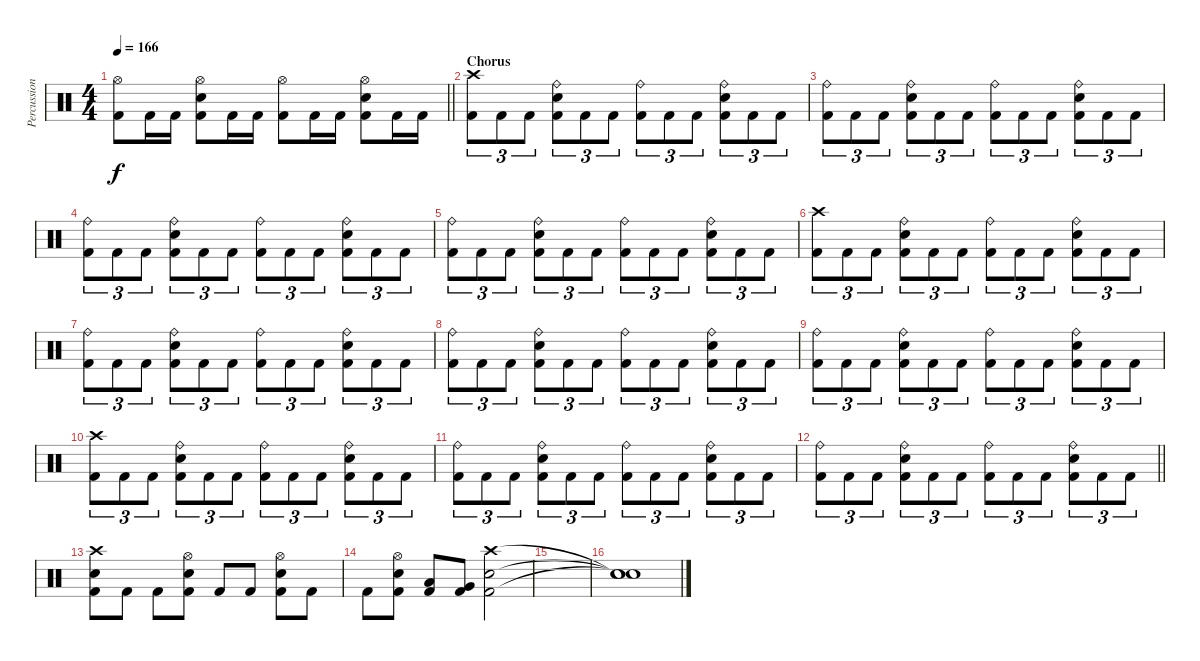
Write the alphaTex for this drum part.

\track ("Percussion" "Percussion") {instrument percussion}
\staff {score}
\articulation defaults
\ts (4 4)
\tempo 166
\clef neutral
\barLineRight lightlight
\ks c
("Hi-Hat (open)" "Kick (hit) 2").8{dy f} "Kick (hit) 2".16 "Kick (hit) 2".16 ("Hi-Hat (open)" "Snare (hit) 2" "Kick (hit) 2").8 "Kick (hit) 2".16 "Kick (hit) 2".16 ("Hi-Hat (open)" "Kick (hit) 2").8 "Kick (hit) 2".16 "Kick (hit) 2".16 ("Hi-Hat (open)" "Snare (hit) 2" "Kick (hit) 2").8 "Kick (hit) 2".16 "Kick (hit) 2".16 |
\section ("" "Chorus")
("Crash high (hit)" "Kick (hit) 2").8{tu (3 2)} "Kick (hit) 2".8{tu (3 2)} "Kick (hit) 2".8{tu (3 2)} ("Ride (bell)" "Snare (hit) 2" "Kick (hit) 2").8{tu (3 2)} "Kick (hit) 2".8{tu (3 2)} "Kick (hit) 2".8{tu (3 2)} ("Ride (bell)" "Kick (hit) 2").8{tu (3 2)} "Kick (hit) 2".8{tu (3 2)} "Kick (hit) 2".8{tu (3 2)} ("Ride (bell)" "Snare (hit) 2" "Kick (hit) 2").8{tu (3 2)} "Kick (hit) 2".8{tu (3 2)} "Kick (hit) 2".8{tu (3 2)} |
("Ride (bell)" "Kick (hit) 2").8{tu (3 2)} "Kick (hit) 2".8{tu (3 2)} "Kick (hit) 2".8{tu (3 2)} ("Ride (bell)" "Snare (hit) 2" "Kick (hit) 2").8{tu (3 2)} "Kick (hit) 2".8{tu (3 2)} "Kick (hit) 2".8{tu (3 2)} ("Ride (bell)" "Kick (hit) 2").8{tu (3 2)} "Kick (hit) 2".8{tu (3 2)} "Kick (hit) 2".8{tu (3 2)} ("Ride (bell)" "Snare (hit) 2" "Kick (hit) 2").8{tu (3 2)} "Kick (hit) 2".8{tu (3 2)} "Kick (hit) 2".8{tu (3 2)} |
("Ride (bell)" "Kick (hit) 2").8{tu (3 2)} "Kick (hit) 2".8{tu (3 2)} "Kick (hit) 2".8{tu (3 2)} ("Ride (bell)" "Snare (hit) 2" "Kick (hit) 2").8{tu (3 2)} "Kick (hit) 2".8{tu (3 2)} "Kick (hit) 2".8{tu (3 2)} ("Ride (bell)" "Kick (hit) 2").8{tu (3 2)} "Kick (hit) 2".8{tu (3 2)} "Kick (hit) 2".8{tu (3 2)} ("Ride (bell)" "Snare (hit) 2" "Kick (hit) 2").8{tu (3 2)} "Kick (hit) 2".8{tu (3 2)} "Kick (hit) 2".8{tu (3 2)} |
("Ride (bell)" "Kick (hit) 2").8{tu (3 2)} "Kick (hit) 2".8{tu (3 2)} "Kick (hit) 2".8{tu (3 2)} ("Ride (bell)" "Snare (hit) 2" "Kick (hit) 2").8{tu (3 2)} "Kick (hit) 2".8{tu (3 2)} "Kick (hit) 2".8{tu (3 2)} ("Ride (bell)" "Kick (hit) 2").8{tu (3 2)} "Kick (hit) 2".8{tu (3 2)} "Kick (hit) 2".8{tu (3 2)} ("Ride (bell)" "Snare (hit) 2" "Kick (hit) 2").8{tu (3 2)} "Kick (hit) 2".8{tu (3 2)} "Kick (hit) 2".8{tu (3 2)} |
("Crash high (hit)" "Kick (hit) 2").8{tu (3 2)} "Kick (hit) 2".8{tu (3 2)} "Kick (hit) 2".8{tu (3 2)} ("Ride (bell)" "Snare (hit) 2" "Kick (hit) 2").8{tu (3 2)} "Kick (hit) 2".8{tu (3 2)} "Kick (hit) 2".8{tu (3 2)} ("Ride (bell)" "Kick (hit) 2").8{tu (3 2)} "Kick (hit) 2".8{tu (3 2)} "Kick (hit) 2".8{tu (3 2)} ("Ride (bell)" "Snare (hit) 2" "Kick (hit) 2").8{tu (3 2)} "Kick (hit) 2".8{tu (3 2)} "Kick (hit) 2".8{tu (3 2)} |
("Ride (bell)" "Kick (hit) 2").8{tu (3 2)} "Kick (hit) 2".8{tu (3 2)} "Kick (hit) 2".8{tu (3 2)} ("Ride (bell)" "Snare (hit) 2" "Kick (hit) 2").8{tu (3 2)} "Kick (hit) 2".8{tu (3 2)} "Kick (hit) 2".8{tu (3 2)} ("Ride (bell)" "Kick (hit) 2").8{tu (3 2)} "Kick (hit) 2".8{tu (3 2)} "Kick (hit) 2".8{tu (3 2)} ("Ride (bell)" "Snare (hit) 2" "Kick (hit) 2").8{tu (3 2)} "Kick (hit) 2".8{tu (3 2)} "Kick (hit) 2".8{tu (3 2)} |
("Ride (bell)" "Kick (hit) 2").8{tu (3 2)} "Kick (hit) 2".8{tu (3 2)} "Kick (hit) 2".8{tu (3 2)} ("Ride (bell)" "Snare (hit) 2" "Kick (hit) 2").8{tu (3 2)} "Kick (hit) 2".8{tu (3 2)} "Kick (hit) 2".8{tu (3 2)} ("Ride (bell)" "Kick (hit) 2").8{tu (3 2)} "Kick (hit) 2".8{tu (3 2)} "Kick (hit) 2".8{tu (3 2)} ("Ride (bell)" "Snare (hit) 2" "Kick (hit) 2").8{tu (3 2)} "Kick (hit) 2".8{tu (3 2)} "Kick (hit) 2".8{tu (3 2)} |
("Ride (bell)" "Kick (hit) 2").8{tu (3 2)} "Kick (hit) 2".8{tu (3 2)} "Kick (hit) 2".8{tu (3 2)} ("Ride (bell)" "Snare (hit) 2" "Kick (hit) 2").8{tu (3 2)} "Kick (hit) 2".8{tu (3 2)} "Kick (hit) 2".8{tu (3 2)} ("Ride (bell)" "Kick (hit) 2").8{tu (3 2)} "Kick (hit) 2".8{tu (3 2)} "Kick (hit) 2".8{tu (3 2)} ("Ride (bell)" "Snare (hit) 2" "Kick (hit) 2").8{tu (3 2)} "Kick (hit) 2".8{tu (3 2)} "Kick (hit) 2".8{tu (3 2)} |
("Crash high (hit)" "Kick (hit) 2").8{tu (3 2)} "Kick (hit) 2".8{tu (3 2)} "Kick (hit) 2".8{tu (3 2)} ("Ride (bell)" "Snare (hit) 2" "Kick (hit) 2").8{tu (3 2)} "Kick (hit) 2".8{tu (3 2)} "Kick (hit) 2".8{tu (3 2)} ("Ride (bell)" "Kick (hit) 2").8{tu (3 2)} "Kick (hit) 2".8{tu (3 2)} "Kick (hit) 2".8{tu (3 2)} ("Ride (bell)" "Snare (hit) 2" "Kick (hit) 2").8{tu (3 2)} "Kick (hit) 2".8{tu (3 2)} "Kick (hit) 2".8{tu (3 2)} |
("Ride (bell)" "Kick (hit) 2").8{tu (3 2)} "Kick (hit) 2".8{tu (3 2)} "Kick (hit) 2".8{tu (3 2)} ("Ride (bell)" "Snare (hit) 2" "Kick (hit) 2").8{tu (3 2)} "Kick (hit) 2".8{tu (3 2)} "Kick (hit) 2".8{tu (3 2)} ("Ride (bell)" "Kick (hit) 2").8{tu (3 2)} "Kick (hit) 2".8{tu (3 2)} "Kick (hit) 2".8{tu (3 2)} ("Ride (bell)" "Snare (hit) 2" "Kick (hit) 2").8{tu (3 2)} "Kick (hit) 2".8{tu (3 2)} "Kick (hit) 2".8{tu (3 2)} |
\barLineRight lightlight
("Ride (bell)" "Kick (hit) 2").8{tu (3 2)} "Kick (hit) 2".8{tu (3 2)} "Kick (hit) 2".8{tu (3 2)} ("Ride (bell)" "Snare (hit) 2" "Kick (hit) 2").8{tu (3 2)} "Kick (hit) 2".8{tu (3 2)} "Kick (hit) 2".8{tu (3 2)} ("Ride (bell)" "Kick (hit) 2").8{tu (3 2)} "Kick (hit) 2".8{tu (3 2)} "Kick (hit) 2".8{tu (3 2)} ("Ride (bell)" "Snare (hit) 2" "Kick (hit) 2").8{tu (3 2)} "Kick (hit) 2".8{tu (3 2)} "Kick (hit) 2".8{tu (3 2)} |
("Crash high (hit)" "Snare (hit) 2" "Kick (hit) 2").8 "Kick (hit) 2".8 "Kick (hit) 2".8 ("Hi-Hat (open)" "Snare (hit) 2" "Kick (hit) 2").8 "Kick (hit) 2".8 "Kick (hit) 2".8 ("Hi-Hat (open)" "Snare (hit) 2" "Kick (hit) 2").8 "Kick (hit) 2".8 |
"Kick (hit) 2".8 ("Hi-Hat (open)" "Snare (hit) 2" "Kick (hit) 2").8 ("Low Tom (hit)" "Kick (hit) 2").8 ("Very Low Tom (hit)" "Kick (hit) 2").8 ("Crash high (hit)" "Snare (hit) 2" "Kick (hit) 2").2 |
|
("Snare (hit)"{t} "Snare (hit)"{t} "Snare (hit)"{t}).1
